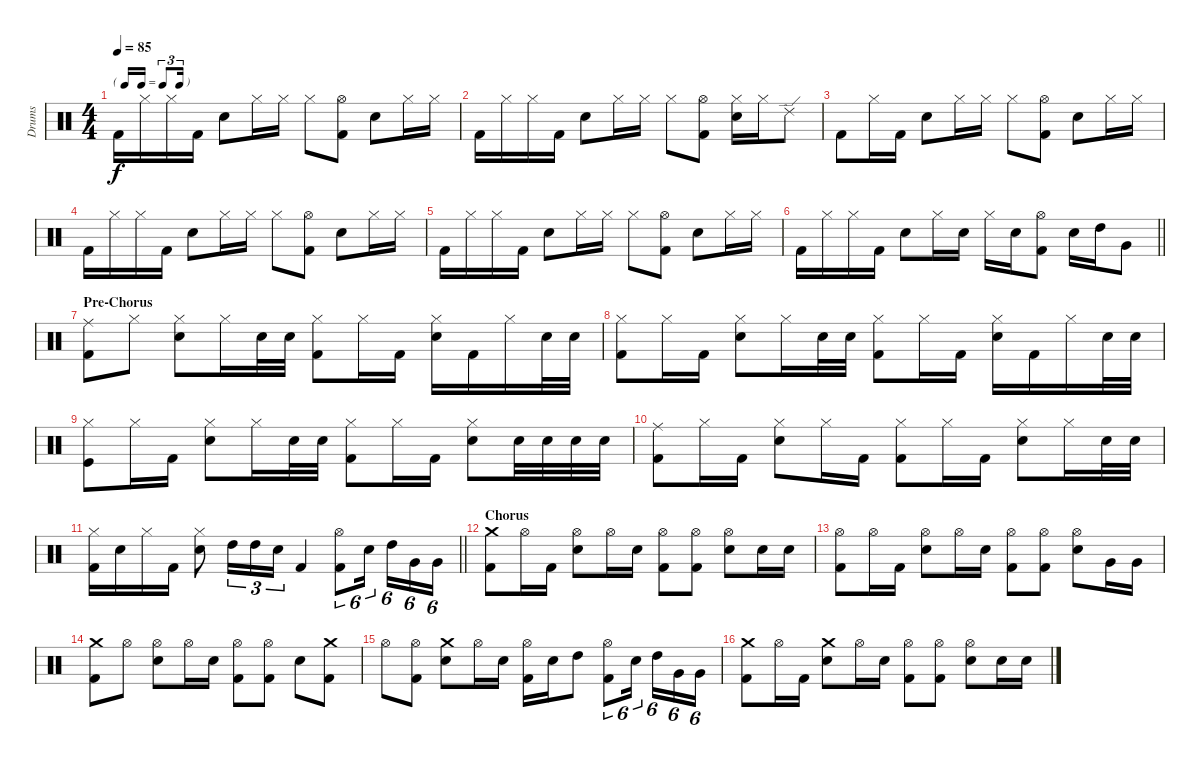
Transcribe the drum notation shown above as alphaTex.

\track ("Drums" "Drums") {instrument percussion}
\staff {score}
\articulation defaults
\ts (4 4)
\tf triplet16th
\tempo 85
\clef neutral
\ks c "Kick (hit) 2".16{dy f} "Hi-Hat (closed)".16 "Hi-Hat (closed)".16 "Kick (hit) 2".16 "Snare (hit) 2".8 "Hi-Hat (closed)".16 "Hi-Hat (closed)".16 "Hi-Hat (closed)".8
("Hi-Hat (open)" "Kick (hit) 2").8 "Snare (hit) 2".8 "Hi-Hat (closed)".16 "Hi-Hat (closed)".16 |
"Kick (hit) 2".16 "Hi-Hat (closed)".16 "Hi-Hat (closed)".16 "Kick (hit) 2".16 "Snare (hit) 2".8 "Hi-Hat (closed)".16 "Hi-Hat (closed)".16 "Hi-Hat (closed)".8 ("Hi-Hat (open)" "Kick (hit) 2").8 ("Hi-Hat (closed)" "Snare (hit) 2").16 "Hi-Hat (closed)".16 "Ride (edge) 2".8 |
"Kick (hit) 2".8 "Hi-Hat (closed)".16 "Kick (hit) 2".16 "Snare (hit) 2".8 "Hi-Hat (closed)".16 "Hi-Hat (closed)".16 "Hi-Hat (closed)".8 ("Hi-Hat (open)" "Kick (hit) 2").8 "Snare (hit) 2".8 "Hi-Hat (closed)".16 "Hi-Hat (closed)".16 |
"Kick (hit) 2".16 "Hi-Hat (closed)".16 "Hi-Hat (closed)".16 "Kick (hit) 2".16 "Snare (hit) 2".8 "Hi-Hat (closed)".16 "Hi-Hat (closed)".16 "Hi-Hat (closed)".8 ("Hi-Hat (open)" "Kick (hit) 2").8 "Snare (hit) 2".8 "Hi-Hat (closed)".16 "Hi-Hat (closed)".16 |
"Kick (hit) 2".16 "Hi-Hat (closed)".16 "Hi-Hat (closed)".16 "Kick (hit) 2".16 "Snare (hit) 2".8 "Hi-Hat (closed)".16 "Hi-Hat (closed)".16 "Hi-Hat (closed)".8 ("Hi-Hat (open)" "Kick (hit) 2").8 "Snare (hit) 2".8 "Hi-Hat (closed)".16 "Hi-Hat (closed)".16 |
\barLineRight lightlight "Kick (hit) 2".16 "Hi-Hat (closed)".16 "Hi-Hat (closed)".16 "Kick (hit) 2".16 "Snare (hit) 2".8 "Hi-Hat (closed)".16 "Snare (hit) 2".16 "Hi-Hat (closed)".16 "Snare (hit) 2".16
("Hi-Hat (open)" "Kick (hit) 2").8 "Snare (hit) 2".16 "High Tom (hit)".16 "Very Low Tom (hit)".8 |
\section ("" "Pre-Chorus")
("Ride (middle)" "Kick (hit) 2").8 "Hi-Hat (closed)".8 ("Hi-Hat (closed)" "Snare (hit) 2").8 "Hi-Hat (closed)".16 "Snare (hit) 2".32 "Snare (hit) 2".32 ("Hi-Hat (closed)" "Kick (hit) 2").8 "Hi-Hat (closed)".16 "Kick (hit) 2".16 ("Hi-Hat (closed)" "Snare (hit) 2").16 "Kick (hit) 2".16 "Hi-Hat (closed)".16 "Snare (hit) 2".32 "Snare (hit) 2".32 |
("Hi-Hat (closed)" "Kick (hit) 2").8 "Hi-Hat (closed)".16 "Kick (hit) 2".16 ("Hi-Hat (closed)" "Snare (hit) 2").8 "Hi-Hat (closed)".16 "Snare (hit) 2".32 "Snare (hit) 2".32 ("Hi-Hat (closed)" "Kick (hit) 2").8 "Hi-Hat (closed)".16 "Kick (hit) 2".16 ("Hi-Hat (closed)" "Snare (hit) 2").16 "Kick (hit) 2".16 "Hi-Hat (closed)".16 "Snare (hit) 2".32 "Snare (hit) 2".32 |
("Hi-Hat (closed)" "Kick (hit)").8 "Hi-Hat (closed)".16 "Kick (hit) 2".16 ("Hi-Hat (closed)" "Snare (hit) 2").8 "Hi-Hat (closed)".16 "Snare (hit) 2".32 "Snare (hit) 2".32 ("Hi-Hat (closed)" "Kick (hit) 2").8 "Hi-Hat (closed)".16 "Kick (hit) 2".16 ("Hi-Hat (closed)" "Snare (hit) 2").8 "Snare (hit) 2".32 "Snare (hit) 2".32 "Snare (hit) 2".32 "Snare (hit) 2".32 |
("Ride (middle)" "Kick (hit) 2").8 "Hi-Hat (closed)".16 "Kick (hit) 2".16 ("Hi-Hat (closed)" "Snare (hit) 2").8 "Hi-Hat (closed)".16 "Kick (hit) 2".16 ("Hi-Hat (closed)" "Kick (hit) 2").8 "Hi-Hat (closed)".16 "Kick (hit) 2".16 ("Hi-Hat (closed)" "Snare (hit) 2").8 "Hi-Hat (closed)".16 "Snare (hit) 2".32 "Snare (hit) 2".32 |
\barLineRight lightlight
("Hi-Hat (closed)" "Kick (hit) 2").16 "Snare (hit) 2".16 "Hi-Hat (closed)".16 "Kick (hit) 2".16 ("Hi-Hat (closed)" "Snare (hit) 2").8 "High Tom (hit)".16{tu (3 2)} "High Tom (hit)".16{tu (3 2)} "Snare (hit) 2".16{tu (3 2)} "Kick (hit) 2".4 ("Hi-Hat (open)" "Kick (hit) 2").8{tu (6 4)} "Snare (hit) 2".16{tu (6 4) beam splitsecondary} "High Tom (hit)".16{tu (6 4)} "Very Low Tom (hit)".16{tu (6 4)} "Very Low Tom (hit)".16{tu (6 4)} |
\section ("" "Chorus")
("Crash medium (hit)" "Kick (hit) 2").8 "Hi-Hat (open)".16 "Kick (hit) 2".16 ("Hi-Hat (open)" "Snare (hit) 2").8 "Hi-Hat (open)".16 "Snare (hit) 2".16 ("Hi-Hat (open)" "Kick (hit) 2").8 ("Hi-Hat (open)" "Kick (hit) 2").8 ("Hi-Hat (open)" "Snare (hit) 2").8 "Snare (hit) 2".16 "Snare (hit) 2".16 |
("Hi-Hat (open)" "Kick (hit) 2").8 "Hi-Hat (open)".16 "Kick (hit) 2".16 ("Hi-Hat (open)" "Snare (hit) 2").8 "Hi-Hat (open)".16 "Snare (hit) 2".16 ("Hi-Hat (open)" "Kick (hit) 2").8 ("Hi-Hat (open)" "Kick (hit) 2").8 ("Hi-Hat (open)" "Snare (hit) 2").8 "Very Low Tom (hit)".16 "Very Low Tom (hit)".16 |
("Crash medium (hit)" "Kick (hit) 2").8 "Hi-Hat (open)".8 ("Hi-Hat (open)" "Snare (hit) 2").8 "Hi-Hat (open)".16 "Snare (hit) 2".16 ("Hi-Hat (open)" "Kick (hit) 2").8 ("Hi-Hat (open)" "Kick (hit) 2").8 "Snare (hit) 2".8 ("Crash medium (hit)" "Kick (hit) 2").8 |
"Hi-Hat (open)".8 ("Hi-Hat (open)" "Kick (hit) 2").8 ("Crash medium (hit)" "Snare (hit) 2").8 "Hi-Hat (open)".16 "Snare (hit) 2".16 ("Hi-Hat (open)" "Kick (hit) 2").16 "Snare (hit) 2".16 "High Tom (hit)".8 ("Hi-Hat (open)" "Kick (hit) 2").8{tu (6 4)} "Snare (hit) 2".16{tu (6 4) beam splitsecondary} "High Tom (hit)".16{tu (6 4)} "Very Low Tom (hit)".16{tu (6 4)} "Very Low Tom (hit)".16{tu (6 4)} |
("Crash medium (hit)" "Kick (hit) 2").8 "Hi-Hat (open)".16 "Kick (hit) 2".16 ("Crash medium (hit)" "Snare (hit) 2").8 "Hi-Hat (open)".16 "Snare (hit) 2".16 ("Hi-Hat (open)" "Kick (hit) 2").8 ("Hi-Hat (open)" "Kick (hit) 2").8 ("Hi-Hat (open)" "Snare (hit) 2").8 "Snare (hit) 2".16 "Snare (hit) 2".16
